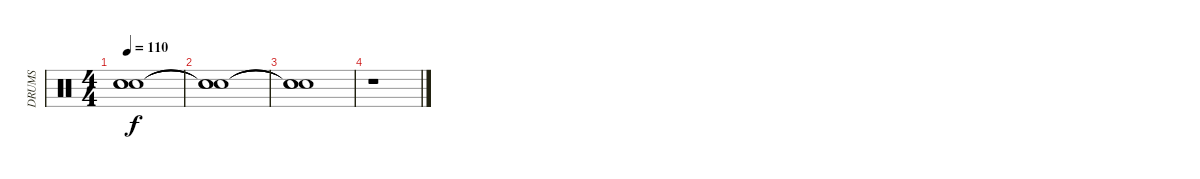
\track ("DRUMS" "DRUMS") {instrument percussion}
\staff {score}
\articulation defaults
\ts (4 4)
\tempo 110
\clef neutral
\ks c
("Snare (hit)"{t} "Snare (hit)"{t} "Snare (hit)"{t}).1{dy f} |
("Snare (hit)"{t} "Snare (hit)"{t} "Snare (hit)"{t}).1 |
("Snare (hit)"{t} "Snare (hit)"{t} "Snare (hit)"{t}).1 |
r.1
